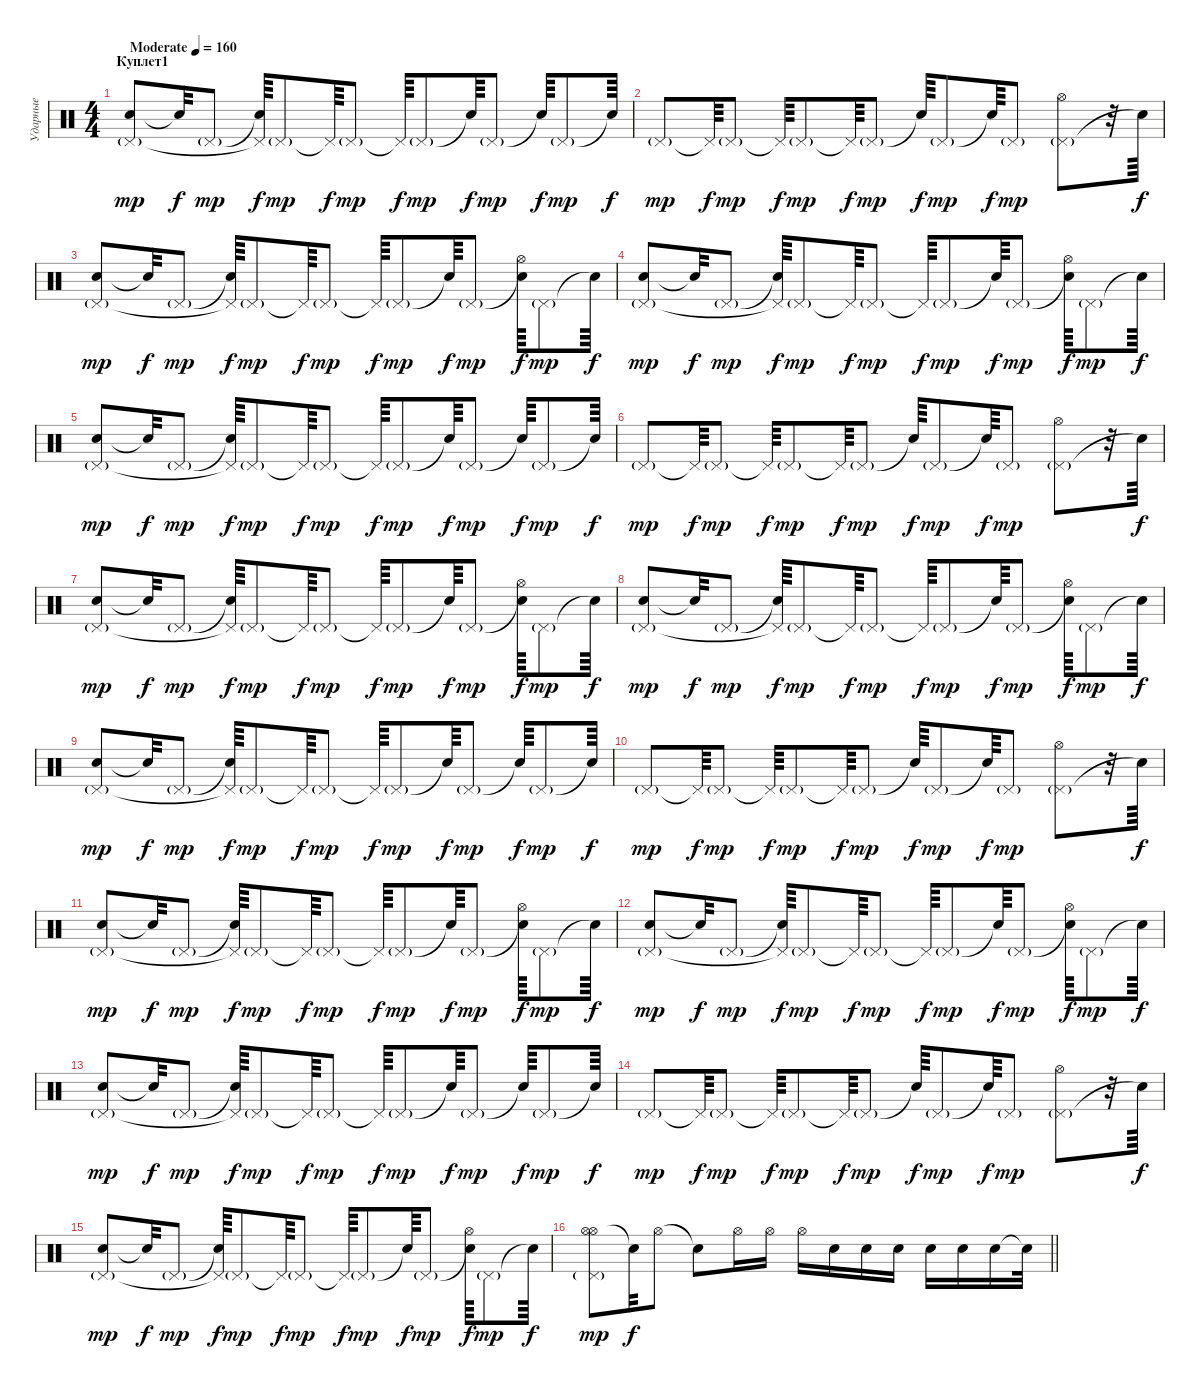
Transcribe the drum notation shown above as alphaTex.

\track ("Ударные" "Ударные") {instrument percussion}
\staff {score}
\articulation defaults
\ts (4 4)
\section ("" "Куплет1")
\tempo (160 "Moderate")
\clef neutral
\ks c
("Electric Snare (hit)" "Pedal Hi-Hat (hit)"{g}).8{dy mp} "Snare (hit)"{t}.32{dy f} "Pedal Hi-Hat (hit)"{g}.8{dy mp} ("Snare (hit)"{t} "Pedal Hi-Hat (hit)"{t}).64{dy f} "Pedal Hi-Hat (hit)"{g}.8{dy mp} "Pedal Hi-Hat (hit)"{t}.64{dy f} "Pedal Hi-Hat (hit)"{g}.8{dy mp} "Pedal Hi-Hat (hit)"{t}.64{dy f} "Pedal Hi-Hat (hit)"{g}.8{dy mp} "Snare (hit)"{t}.64{dy f} "Pedal Hi-Hat (hit)"{g}.8{dy mp} "Snare (hit)"{t}.64{dy f} "Pedal Hi-Hat (hit)"{g}.8{dy mp} "Snare (hit)"{t}.64{dy f} |
"Pedal Hi-Hat (hit)"{g}.8{dy mp} "Pedal Hi-Hat (hit)"{t}.64{dy f} "Pedal Hi-Hat (hit)"{g}.8{dy mp} "Pedal Hi-Hat (hit)"{t}.64{dy f} "Pedal Hi-Hat (hit)"{g}.8{dy mp} "Pedal Hi-Hat (hit)"{t}.64{dy f} "Pedal Hi-Hat (hit)"{g}.8{dy mp} "Snare (hit)"{t}.64{dy f} "Pedal Hi-Hat (hit)"{g}.8{dy mp} "Snare (hit)"{t}.64{dy f} "Pedal Hi-Hat (hit)"{g}.8{dy mp} ("Pedal Hi-Hat (hit)"{g} "Hi-Hat (open)").8 r.32 "Snare (hit)"{t}.64{dy f} |
("Electric Snare (hit)" "Pedal Hi-Hat (hit)"{g}).8{dy mp} "Snare (hit)"{t}.32{dy f} "Pedal Hi-Hat (hit)"{g}.8{dy mp} ("Snare (hit)"{t} "Pedal Hi-Hat (hit)"{t}).64{dy f} "Pedal Hi-Hat (hit)"{g}.8{dy mp} "Pedal Hi-Hat (hit)"{t}.64{dy f} "Pedal Hi-Hat (hit)"{g}.8{dy mp} "Pedal Hi-Hat (hit)"{t}.64{dy f} "Pedal Hi-Hat (hit)"{g}.8{dy mp} "Snare (hit)"{t}.64{dy f} "Pedal Hi-Hat (hit)"{g}.8{dy mp} ("Snare (hit)"{t} "Hi-Hat (open)").64{dy f} "Pedal Hi-Hat (hit)"{g}.8{dy mp} "Snare (hit)"{t}.64{dy f} |
("Electric Snare (hit)" "Pedal Hi-Hat (hit)"{g}).8{dy mp} "Snare (hit)"{t}.32{dy f} "Pedal Hi-Hat (hit)"{g}.8{dy mp} ("Snare (hit)"{t} "Pedal Hi-Hat (hit)"{t}).64{dy f} "Pedal Hi-Hat (hit)"{g}.8{dy mp} "Pedal Hi-Hat (hit)"{t}.64{dy f} "Pedal Hi-Hat (hit)"{g}.8{dy mp} "Pedal Hi-Hat (hit)"{t}.64{dy f} "Pedal Hi-Hat (hit)"{g}.8{dy mp} "Snare (hit)"{t}.64{dy f} "Pedal Hi-Hat (hit)"{g}.8{dy mp} ("Snare (hit)"{t} "Hi-Hat (open)").64{dy f} "Pedal Hi-Hat (hit)"{g}.8{dy mp} "Snare (hit)"{t}.64{dy f} |
("Electric Snare (hit)" "Pedal Hi-Hat (hit)"{g}).8{dy mp} "Snare (hit)"{t}.32{dy f} "Pedal Hi-Hat (hit)"{g}.8{dy mp} ("Snare (hit)"{t} "Pedal Hi-Hat (hit)"{t}).64{dy f} "Pedal Hi-Hat (hit)"{g}.8{dy mp} "Pedal Hi-Hat (hit)"{t}.64{dy f} "Pedal Hi-Hat (hit)"{g}.8{dy mp} "Pedal Hi-Hat (hit)"{t}.64{dy f} "Pedal Hi-Hat (hit)"{g}.8{dy mp} "Snare (hit)"{t}.64{dy f} "Pedal Hi-Hat (hit)"{g}.8{dy mp} "Snare (hit)"{t}.64{dy f} "Pedal Hi-Hat (hit)"{g}.8{dy mp} "Snare (hit)"{t}.64{dy f} |
"Pedal Hi-Hat (hit)"{g}.8{dy mp} "Pedal Hi-Hat (hit)"{t}.64{dy f} "Pedal Hi-Hat (hit)"{g}.8{dy mp} "Pedal Hi-Hat (hit)"{t}.64{dy f} "Pedal Hi-Hat (hit)"{g}.8{dy mp} "Pedal Hi-Hat (hit)"{t}.64{dy f} "Pedal Hi-Hat (hit)"{g}.8{dy mp} "Snare (hit)"{t}.64{dy f} "Pedal Hi-Hat (hit)"{g}.8{dy mp} "Snare (hit)"{t}.64{dy f} "Pedal Hi-Hat (hit)"{g}.8{dy mp} ("Pedal Hi-Hat (hit)"{g} "Hi-Hat (open)").8 r.32 "Snare (hit)"{t}.64{dy f} |
("Electric Snare (hit)" "Pedal Hi-Hat (hit)"{g}).8{dy mp} "Snare (hit)"{t}.32{dy f} "Pedal Hi-Hat (hit)"{g}.8{dy mp} ("Snare (hit)"{t} "Pedal Hi-Hat (hit)"{t}).64{dy f} "Pedal Hi-Hat (hit)"{g}.8{dy mp} "Pedal Hi-Hat (hit)"{t}.64{dy f} "Pedal Hi-Hat (hit)"{g}.8{dy mp} "Pedal Hi-Hat (hit)"{t}.64{dy f} "Pedal Hi-Hat (hit)"{g}.8{dy mp} "Snare (hit)"{t}.64{dy f} "Pedal Hi-Hat (hit)"{g}.8{dy mp} ("Snare (hit)"{t} "Hi-Hat (open)").64{dy f} "Pedal Hi-Hat (hit)"{g}.8{dy mp} "Snare (hit)"{t}.64{dy f} |
("Electric Snare (hit)" "Pedal Hi-Hat (hit)"{g}).8{dy mp} "Snare (hit)"{t}.32{dy f} "Pedal Hi-Hat (hit)"{g}.8{dy mp} ("Snare (hit)"{t} "Pedal Hi-Hat (hit)"{t}).64{dy f} "Pedal Hi-Hat (hit)"{g}.8{dy mp} "Pedal Hi-Hat (hit)"{t}.64{dy f} "Pedal Hi-Hat (hit)"{g}.8{dy mp} "Pedal Hi-Hat (hit)"{t}.64{dy f} "Pedal Hi-Hat (hit)"{g}.8{dy mp} "Snare (hit)"{t}.64{dy f} "Pedal Hi-Hat (hit)"{g}.8{dy mp} ("Snare (hit)"{t} "Hi-Hat (open)").64{dy f} "Pedal Hi-Hat (hit)"{g}.8{dy mp} "Snare (hit)"{t}.64{dy f} |
("Electric Snare (hit)" "Pedal Hi-Hat (hit)"{g}).8{dy mp} "Snare (hit)"{t}.32{dy f} "Pedal Hi-Hat (hit)"{g}.8{dy mp} ("Snare (hit)"{t} "Pedal Hi-Hat (hit)"{t}).64{dy f} "Pedal Hi-Hat (hit)"{g}.8{dy mp} "Pedal Hi-Hat (hit)"{t}.64{dy f} "Pedal Hi-Hat (hit)"{g}.8{dy mp} "Pedal Hi-Hat (hit)"{t}.64{dy f} "Pedal Hi-Hat (hit)"{g}.8{dy mp} "Snare (hit)"{t}.64{dy f} "Pedal Hi-Hat (hit)"{g}.8{dy mp} "Snare (hit)"{t}.64{dy f} "Pedal Hi-Hat (hit)"{g}.8{dy mp} "Snare (hit)"{t}.64{dy f} |
"Pedal Hi-Hat (hit)"{g}.8{dy mp} "Pedal Hi-Hat (hit)"{t}.64{dy f} "Pedal Hi-Hat (hit)"{g}.8{dy mp} "Pedal Hi-Hat (hit)"{t}.64{dy f} "Pedal Hi-Hat (hit)"{g}.8{dy mp} "Pedal Hi-Hat (hit)"{t}.64{dy f} "Pedal Hi-Hat (hit)"{g}.8{dy mp} "Snare (hit)"{t}.64{dy f} "Pedal Hi-Hat (hit)"{g}.8{dy mp} "Snare (hit)"{t}.64{dy f} "Pedal Hi-Hat (hit)"{g}.8{dy mp} ("Pedal Hi-Hat (hit)"{g} "Hi-Hat (open)").8 r.32 "Snare (hit)"{t}.64{dy f} |
("Electric Snare (hit)" "Pedal Hi-Hat (hit)"{g}).8{dy mp} "Snare (hit)"{t}.32{dy f} "Pedal Hi-Hat (hit)"{g}.8{dy mp} ("Snare (hit)"{t} "Pedal Hi-Hat (hit)"{t}).64{dy f} "Pedal Hi-Hat (hit)"{g}.8{dy mp} "Pedal Hi-Hat (hit)"{t}.64{dy f} "Pedal Hi-Hat (hit)"{g}.8{dy mp} "Pedal Hi-Hat (hit)"{t}.64{dy f} "Pedal Hi-Hat (hit)"{g}.8{dy mp} "Snare (hit)"{t}.64{dy f} "Pedal Hi-Hat (hit)"{g}.8{dy mp} ("Snare (hit)"{t} "Hi-Hat (open)").64{dy f} "Pedal Hi-Hat (hit)"{g}.8{dy mp} "Snare (hit)"{t}.64{dy f} |
("Electric Snare (hit)" "Pedal Hi-Hat (hit)"{g}).8{dy mp} "Snare (hit)"{t}.32{dy f} "Pedal Hi-Hat (hit)"{g}.8{dy mp} ("Snare (hit)"{t} "Pedal Hi-Hat (hit)"{t}).64{dy f} "Pedal Hi-Hat (hit)"{g}.8{dy mp} "Pedal Hi-Hat (hit)"{t}.64{dy f} "Pedal Hi-Hat (hit)"{g}.8{dy mp} "Pedal Hi-Hat (hit)"{t}.64{dy f} "Pedal Hi-Hat (hit)"{g}.8{dy mp} "Snare (hit)"{t}.64{dy f} "Pedal Hi-Hat (hit)"{g}.8{dy mp} ("Snare (hit)"{t} "Hi-Hat (open)").64{dy f} "Pedal Hi-Hat (hit)"{g}.8{dy mp} "Snare (hit)"{t}.64{dy f} |
("Electric Snare (hit)" "Pedal Hi-Hat (hit)"{g}).8{dy mp} "Snare (hit)"{t}.32{dy f} "Pedal Hi-Hat (hit)"{g}.8{dy mp} ("Snare (hit)"{t} "Pedal Hi-Hat (hit)"{t}).64{dy f} "Pedal Hi-Hat (hit)"{g}.8{dy mp} "Pedal Hi-Hat (hit)"{t}.64{dy f} "Pedal Hi-Hat (hit)"{g}.8{dy mp} "Pedal Hi-Hat (hit)"{t}.64{dy f} "Pedal Hi-Hat (hit)"{g}.8{dy mp} "Snare (hit)"{t}.64{dy f} "Pedal Hi-Hat (hit)"{g}.8{dy mp} "Snare (hit)"{t}.64{dy f} "Pedal Hi-Hat (hit)"{g}.8{dy mp} "Snare (hit)"{t}.64{dy f} |
"Pedal Hi-Hat (hit)"{g}.8{dy mp} "Pedal Hi-Hat (hit)"{t}.64{dy f} "Pedal Hi-Hat (hit)"{g}.8{dy mp} "Pedal Hi-Hat (hit)"{t}.64{dy f} "Pedal Hi-Hat (hit)"{g}.8{dy mp} "Pedal Hi-Hat (hit)"{t}.64{dy f} "Pedal Hi-Hat (hit)"{g}.8{dy mp} "Snare (hit)"{t}.64{dy f} "Pedal Hi-Hat (hit)"{g}.8{dy mp} "Snare (hit)"{t}.64{dy f} "Pedal Hi-Hat (hit)"{g}.8{dy mp} ("Pedal Hi-Hat (hit)"{g} "Hi-Hat (open)").8 r.32 "Snare (hit)"{t}.64{dy f} |
("Electric Snare (hit)" "Pedal Hi-Hat (hit)"{g}).8{dy mp} "Snare (hit)"{t}.32{dy f} "Pedal Hi-Hat (hit)"{g}.8{dy mp} ("Snare (hit)"{t} "Pedal Hi-Hat (hit)"{t}).64{dy f} "Pedal Hi-Hat (hit)"{g}.8{dy mp} "Pedal Hi-Hat (hit)"{t}.64{dy f} "Pedal Hi-Hat (hit)"{g}.8{dy mp} "Pedal Hi-Hat (hit)"{t}.64{dy f} "Pedal Hi-Hat (hit)"{g}.8{dy mp} "Snare (hit)"{t}.64{dy f} "Pedal Hi-Hat (hit)"{g}.8{dy mp} ("Snare (hit)"{t} "Hi-Hat (open)").64{dy f} "Pedal Hi-Hat (hit)"{g}.8{dy mp} "Snare (hit)"{t}.64{dy f} |
\barLineRight lightlight
("Hi-Hat (open)" "Pedal Hi-Hat (hit)"{g} "Hi-Hat (open)").8{dy mp} "Snare (hit)"{t}.32{dy f} "Hi-Hat (open)".8 "Snare (hit)"{t}.8 "Hi-Hat (open)".16 "Hi-Hat (open)".16 "Hi-Hat (open)".16 "Electric Snare (hit)".16 "Electric Snare (hit)".16 "Electric Snare (hit)".16 "Electric Snare (hit)".16 "Electric Snare (hit)".16 "Electric Snare (hit)".16 "Snare (hit)"{t}.32
